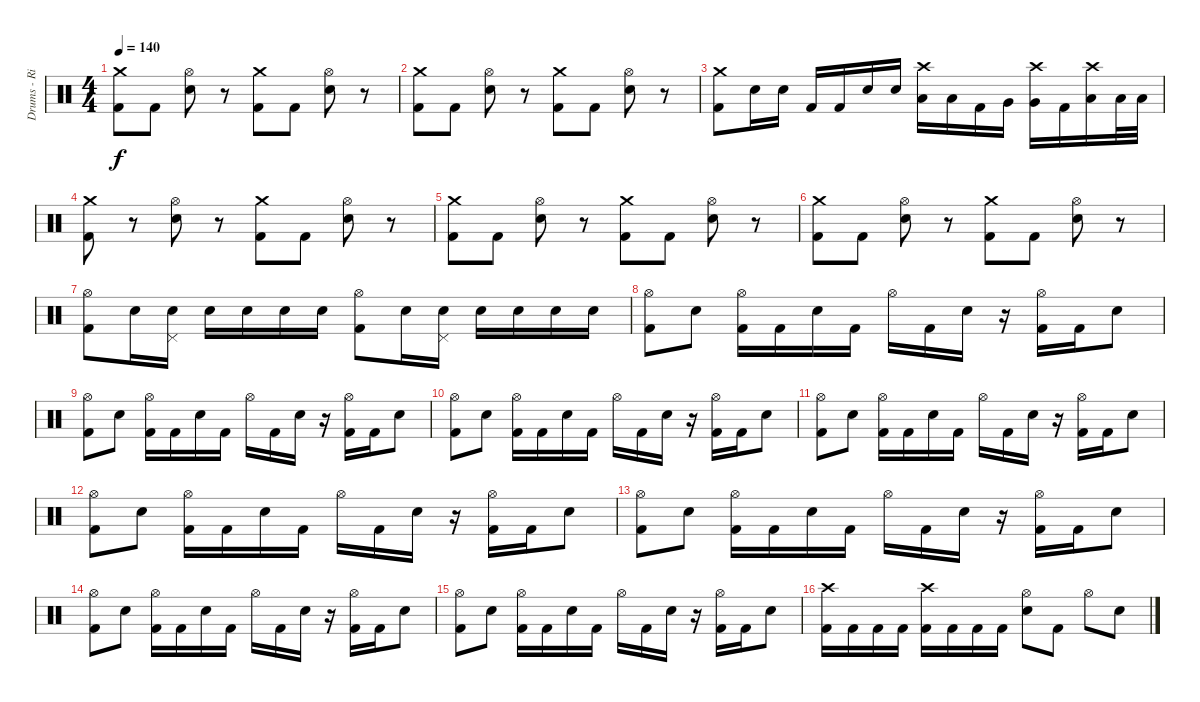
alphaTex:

\track ("Drums - Riley" "Drums - Ri") {instrument percussion}
\staff {score}
\articulation defaults
\ts (4 4)
\tempo 140
\clef neutral
\ks c
("Kick (hit) 2" "Crash medium (hit)").8{dy f} "Kick (hit) 2".8 ("Electric Snare (hit)" "Hi-Hat (open)").8 r.8 ("Kick (hit) 2" "Crash medium (hit)").8 "Kick (hit) 2".8 ("Electric Snare (hit)" "Hi-Hat (open)").8 r.8 |
("Kick (hit) 2" "Crash medium (hit)").8 "Kick (hit) 2".8 ("Electric Snare (hit)" "Hi-Hat (open)").8 r.8 ("Kick (hit) 2" "Crash medium (hit)").8 "Kick (hit) 2".8 ("Electric Snare (hit)" "Hi-Hat (open)").8 r.8 |
("Kick (hit) 2" "Crash medium (hit)").8 "Electric Snare (hit)".16 "Electric Snare (hit)".16 "Kick (hit) 2".16 "Kick (hit) 2".16 "Electric Snare (hit)".16 "Electric Snare (hit)".16 ("Low Tom (hit)" "Crash high (hit)").16 "Low Tom (hit)".16 "Kick (hit) 2".16 "Very Low Tom (hit)".16 ("Very Low Tom (hit)" "Crash high (hit)").16 "Kick (hit) 2".16 ("Low Floor Tom (hit)" "Crash high (hit)").16 "Low Floor Tom (hit)".32 "Low Floor Tom (hit)".32 |
("Kick (hit) 2" "Crash medium (hit)").8 r.8 ("Electric Snare (hit)" "Hi-Hat (open)").8 r.8 ("Kick (hit) 2" "Crash medium (hit)").8 "Kick (hit) 2".8 ("Electric Snare (hit)" "Hi-Hat (open)").8 r.8 |
("Kick (hit) 2" "Crash medium (hit)").8 "Kick (hit) 2".8 ("Electric Snare (hit)" "Hi-Hat (open)").8 r.8 ("Kick (hit) 2" "Crash medium (hit)").8 "Kick (hit) 2".8 ("Electric Snare (hit)" "Hi-Hat (open)").8 r.8 |
("Kick (hit) 2" "Crash medium (hit)").8 "Kick (hit) 2".8 ("Electric Snare (hit)" "Hi-Hat (open)").8 r.8 ("Kick (hit) 2" "Crash medium (hit)").8 "Kick (hit) 2".8 ("Electric Snare (hit)" "Hi-Hat (open)").8 r.8 |
("Kick (hit) 2" "Hi-Hat (open)").8 "Electric Snare (hit)".16 ("Electric Snare (hit)" "Pedal Hi-Hat (hit)").16 "Electric Snare (hit)".16 "Electric Snare (hit)".16 "Electric Snare (hit)".16 "Electric Snare (hit)".16 ("Kick (hit) 2" "Hi-Hat (open)").8 "Electric Snare (hit)".16 ("Electric Snare (hit)" "Pedal Hi-Hat (hit)").16 "Electric Snare (hit)".16 "Electric Snare (hit)".16 "Electric Snare (hit)".16 "Electric Snare (hit)".16 |
("Kick (hit) 2" "Hi-Hat (open)").8 "Electric Snare (hit)".8 ("Kick (hit) 2" "Hi-Hat (open)").16 "Kick (hit) 2".16 "Electric Snare (hit)".16 "Kick (hit) 2".16 "Hi-Hat (open)".16 "Kick (hit) 2".16 "Electric Snare (hit)".16 r.16 ("Kick (hit) 2" "Hi-Hat (open)").16 "Kick (hit) 2".16 "Electric Snare (hit)".8 |
("Kick (hit) 2" "Hi-Hat (open)").8 "Electric Snare (hit)".8 ("Kick (hit) 2" "Hi-Hat (open)").16 "Kick (hit) 2".16 "Electric Snare (hit)".16 "Kick (hit) 2".16 "Hi-Hat (open)".16 "Kick (hit) 2".16 "Electric Snare (hit)".16 r.16 ("Kick (hit) 2" "Hi-Hat (open)").16 "Kick (hit) 2".16 "Electric Snare (hit)".8 |
("Kick (hit) 2" "Hi-Hat (open)").8 "Electric Snare (hit)".8 ("Kick (hit) 2" "Hi-Hat (open)").16 "Kick (hit) 2".16 "Electric Snare (hit)".16 "Kick (hit) 2".16 "Hi-Hat (open)".16 "Kick (hit) 2".16 "Electric Snare (hit)".16 r.16 ("Kick (hit) 2" "Hi-Hat (open)").16 "Kick (hit) 2".16 "Electric Snare (hit)".8 |
("Kick (hit) 2" "Hi-Hat (open)").8 "Electric Snare (hit)".8 ("Kick (hit) 2" "Hi-Hat (open)").16 "Kick (hit) 2".16 "Electric Snare (hit)".16 "Kick (hit) 2".16 "Hi-Hat (open)".16 "Kick (hit) 2".16 "Electric Snare (hit)".16 r.16 ("Kick (hit) 2" "Hi-Hat (open)").16 "Kick (hit) 2".16 "Electric Snare (hit)".8 |
("Kick (hit) 2" "Hi-Hat (open)").8 "Electric Snare (hit)".8 ("Kick (hit) 2" "Hi-Hat (open)").16 "Kick (hit) 2".16 "Electric Snare (hit)".16 "Kick (hit) 2".16 "Hi-Hat (open)".16 "Kick (hit) 2".16 "Electric Snare (hit)".16 r.16 ("Kick (hit) 2" "Hi-Hat (open)").16 "Kick (hit) 2".16 "Electric Snare (hit)".8 |
("Kick (hit) 2" "Hi-Hat (open)").8 "Electric Snare (hit)".8 ("Kick (hit) 2" "Hi-Hat (open)").16 "Kick (hit) 2".16 "Electric Snare (hit)".16 "Kick (hit) 2".16 "Hi-Hat (open)".16 "Kick (hit) 2".16 "Electric Snare (hit)".16 r.16 ("Kick (hit) 2" "Hi-Hat (open)").16 "Kick (hit) 2".16 "Electric Snare (hit)".8 |
("Kick (hit) 2" "Hi-Hat (open)").8 "Electric Snare (hit)".8 ("Kick (hit) 2" "Hi-Hat (open)").16 "Kick (hit) 2".16 "Electric Snare (hit)".16 "Kick (hit) 2".16 "Hi-Hat (open)".16 "Kick (hit) 2".16 "Electric Snare (hit)".16 r.16 ("Kick (hit) 2" "Hi-Hat (open)").16 "Kick (hit) 2".16 "Electric Snare (hit)".8 |
("Kick (hit) 2" "Hi-Hat (open)").8 "Electric Snare (hit)".8 ("Kick (hit) 2" "Hi-Hat (open)").16 "Kick (hit) 2".16 "Electric Snare (hit)".16 "Kick (hit) 2".16 "Hi-Hat (open)".16 "Kick (hit) 2".16 "Electric Snare (hit)".16 r.16 ("Kick (hit) 2" "Hi-Hat (open)").16 "Kick (hit) 2".16 "Electric Snare (hit)".8 |
("Kick (hit) 2" "Crash high (hit)").16 "Kick (hit) 2".16 "Kick (hit) 2".16 "Kick (hit) 2".16 ("Kick (hit) 2" "Crash high (hit)").16 "Kick (hit) 2".16 "Kick (hit) 2".16 "Kick (hit) 2".16 ("Electric Snare (hit)" "Hi-Hat (open)").8 "Kick (hit) 2".8 "Hi-Hat (open)".8 "Electric Snare (hit)".8
